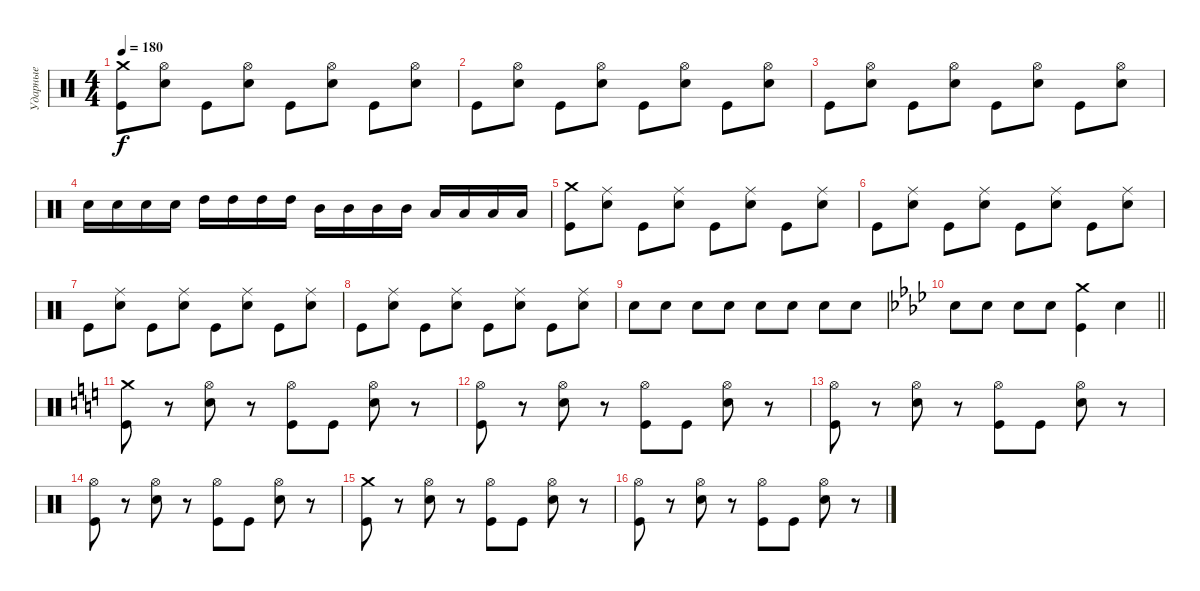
\track ("Ударные" "Ударные") {instrument percussion}
\staff {score}
\articulation defaults
\ts (4 4)
\tempo 180
\clef neutral
\ks c
("Crash medium (hit)" "Kick (hit)").8{dy f} ("Hi-Hat (open)" "Electric Snare (hit)").8 "Kick (hit)".8 ("Hi-Hat (open)" "Electric Snare (hit)").8 "Kick (hit)".8 ("Hi-Hat (open)" "Electric Snare (hit)").8 "Kick (hit)".8 ("Hi-Hat (open)" "Electric Snare (hit)").8 |
"Kick (hit)".8 ("Hi-Hat (open)" "Electric Snare (hit)").8 "Kick (hit)".8 ("Hi-Hat (open)" "Electric Snare (hit)").8 "Kick (hit)".8 ("Hi-Hat (open)" "Electric Snare (hit)").8 "Kick (hit)".8 ("Hi-Hat (open)" "Electric Snare (hit)").8 |
"Kick (hit)".8 ("Hi-Hat (open)" "Electric Snare (hit)").8 "Kick (hit)".8 ("Hi-Hat (open)" "Electric Snare (hit)").8 "Kick (hit)".8 ("Hi-Hat (open)" "Electric Snare (hit)").8 "Kick (hit)".8 ("Hi-Hat (open)" "Electric Snare (hit)").8 |
"Electric Snare (hit)".16 "Electric Snare (hit)".16 "Electric Snare (hit)".16 "Electric Snare (hit)".16 "High Tom (hit)".16 "High Tom (hit)".16 "High Tom (hit)".16 "High Tom (hit)".16 "Mid Tom (hit)".16 "Mid Tom (hit)".16 "Mid Tom (hit)".16 "Mid Tom (hit)".16 "Low Tom (hit)".16 "Low Tom (hit)".16 "Low Tom (hit)".16 "Low Tom (hit)".16 |
("Crash medium (hit)" "Kick (hit)").8 ("Ride (middle)" "Electric Snare (hit)").8 "Kick (hit)".8 ("Ride (middle)" "Electric Snare (hit)").8 "Kick (hit)".8 ("Ride (middle)" "Electric Snare (hit)").8 "Kick (hit)".8 ("Ride (middle)" "Electric Snare (hit)").8 |
"Kick (hit)".8 ("Ride (middle)" "Electric Snare (hit)").8 "Kick (hit)".8 ("Ride (middle)" "Electric Snare (hit)").8 "Kick (hit)".8 ("Ride (middle)" "Electric Snare (hit)").8 "Kick (hit)".8 ("Ride (middle)" "Electric Snare (hit)").8 |
"Kick (hit)".8 ("Ride (middle)" "Electric Snare (hit)").8 "Kick (hit)".8 ("Ride (middle)" "Electric Snare (hit)").8 "Kick (hit)".8 ("Ride (middle)" "Electric Snare (hit)").8 "Kick (hit)".8 ("Ride (middle)" "Electric Snare (hit)").8 |
"Kick (hit)".8 ("Ride (middle)" "Electric Snare (hit)").8 "Kick (hit)".8 ("Ride (middle)" "Electric Snare (hit)").8 "Kick (hit)".8 ("Ride (middle)" "Electric Snare (hit)").8 "Kick (hit)".8 ("Ride (middle)" "Electric Snare (hit)").8 |
"Electric Snare (hit)".8 "Electric Snare (hit)".8 "Electric Snare (hit)".8 "Electric Snare (hit)".8 "Electric Snare (hit)".8 "Electric Snare (hit)".8 "Electric Snare (hit)".8 "Electric Snare (hit)".8 |
\barLineRight lightlight
\ks ab "Electric Snare (hit)".8 "Electric Snare (hit)".8 "Electric Snare (hit)".8 "Electric Snare (hit)".8
("Crash medium (hit)" "Kick (hit)").4 "Electric Snare (hit)".4 |
\ks c
("Crash medium (hit)" "Kick (hit)").8 r.8 ("Hi-Hat (open)" "Electric Snare (hit)").8 r.8 ("Hi-Hat (open)" "Kick (hit)").8 "Kick (hit)".8 ("Hi-Hat (open)" "Electric Snare (hit)").8 r.8 |
("Hi-Hat (open)" "Kick (hit)").8 r.8 ("Hi-Hat (open)" "Electric Snare (hit)").8 r.8 ("Hi-Hat (open)" "Kick (hit)").8 "Kick (hit)".8 ("Hi-Hat (open)" "Electric Snare (hit)").8 r.8 |
("Hi-Hat (open)" "Kick (hit)").8 r.8 ("Hi-Hat (open)" "Electric Snare (hit)").8 r.8 ("Hi-Hat (open)" "Kick (hit)").8 "Kick (hit)".8 ("Hi-Hat (open)" "Electric Snare (hit)").8 r.8 |
("Hi-Hat (open)" "Kick (hit)").8 r.8 ("Hi-Hat (open)" "Electric Snare (hit)").8 r.8 ("Hi-Hat (open)" "Kick (hit)").8 "Kick (hit)".8 ("Hi-Hat (open)" "Electric Snare (hit)").8 r.8 |
("Crash medium (hit)" "Kick (hit)").8 r.8 ("Hi-Hat (open)" "Electric Snare (hit)").8 r.8 ("Hi-Hat (open)" "Kick (hit)").8 "Kick (hit)".8 ("Hi-Hat (open)" "Electric Snare (hit)").8 r.8 |
("Hi-Hat (open)" "Kick (hit)").8 r.8 ("Hi-Hat (open)" "Electric Snare (hit)").8 r.8 ("Hi-Hat (open)" "Kick (hit)").8 "Kick (hit)".8 ("Hi-Hat (open)" "Electric Snare (hit)").8 r.8
